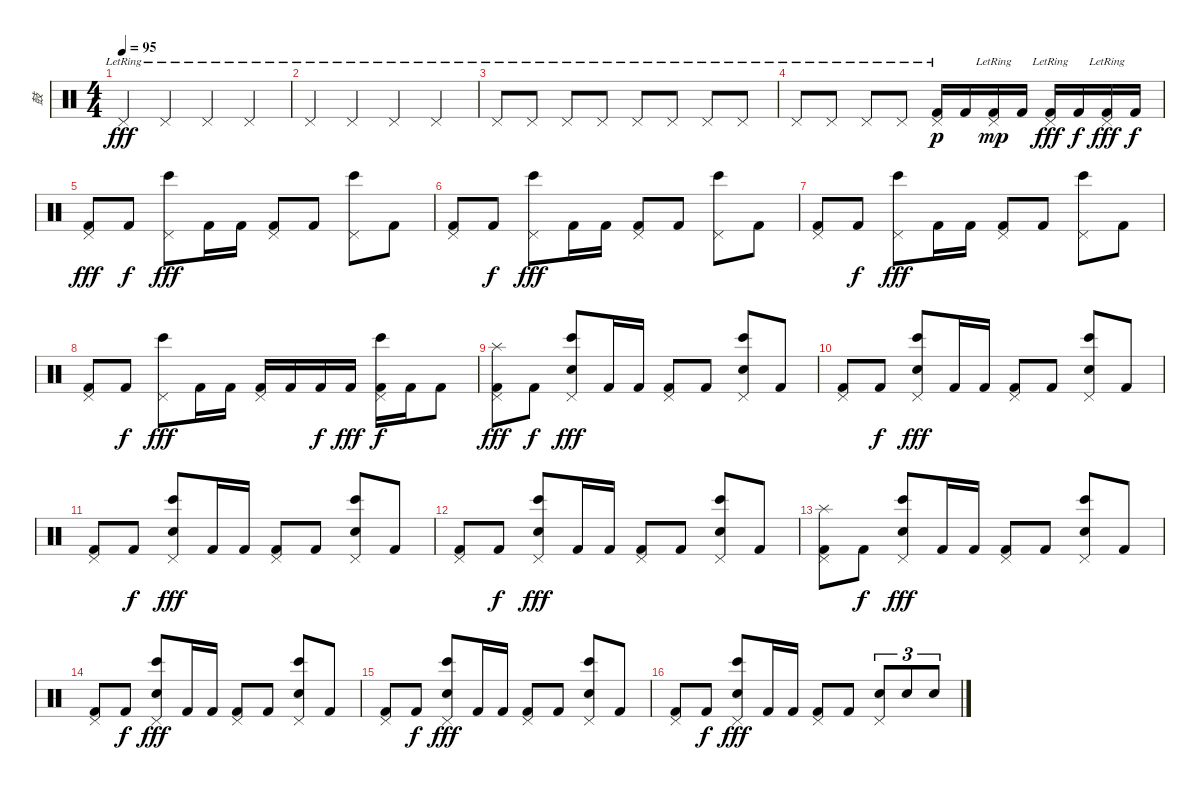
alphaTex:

\track ("鼓" "鼓") {instrument percussion}
\staff {score}
\articulation defaults
\ts (4 4)
\tempo 95
\clef neutral
\ks c "Pedal Hi-Hat (hit)"{lr}.4{dy fff} "Pedal Hi-Hat (hit)"{lr}.4 "Pedal Hi-Hat (hit)"{lr}.4 "Pedal Hi-Hat (hit)"{lr}.4
|
"Pedal Hi-Hat (hit)"{lr}.4 "Pedal Hi-Hat (hit)"{lr}.4 "Pedal Hi-Hat (hit)"{lr}.4 "Pedal Hi-Hat (hit)"{lr}.4 |
"Pedal Hi-Hat (hit)"{lr}.8 "Pedal Hi-Hat (hit)"{lr}.8 "Pedal Hi-Hat (hit)"{lr}.8 "Pedal Hi-Hat (hit)"{lr}.8 "Pedal Hi-Hat (hit)"{lr}.8 "Pedal Hi-Hat (hit)"{lr}.8 "Pedal Hi-Hat (hit)"{lr}.8 "Pedal Hi-Hat (hit)"{lr}.8 |
"Pedal Hi-Hat (hit)"{lr}.8 "Pedal Hi-Hat (hit)"{lr}.8 "Pedal Hi-Hat (hit)"{lr}.8 "Pedal Hi-Hat (hit)"{lr}.8 ("Pedal Hi-Hat (hit)"{lr} "Kick (hit) 2").16{dy p} "Kick (hit) 2".16 ("Pedal Hi-Hat (hit)"{lr} "Kick (hit) 2").16{dy mp} "Kick (hit) 2".16 ("Pedal Hi-Hat (hit)"{lr} "Kick (hit) 2").16{dy fff} "Kick (hit) 2".16{dy f} ("Pedal Hi-Hat (hit)"{lr} "Kick (hit) 2").16{dy fff} "Kick (hit) 2".16{dy f} |
("Pedal Hi-Hat (hit)" "Kick (hit) 2").8{dy fff} "Kick (hit) 2".8{dy f} ("Pedal Hi-Hat (hit)" "Bongo High (hit)").8{dy fff} "Kick (hit) 2".16 "Kick (hit) 2".16 ("Pedal Hi-Hat (hit)" "Kick (hit) 2").8 "Kick (hit) 2".8 ("Pedal Hi-Hat (hit)" "Bongo High (hit)").8 "Kick (hit) 2".8 |
("Pedal Hi-Hat (hit)" "Kick (hit) 2").8 "Kick (hit) 2".8{dy f} ("Pedal Hi-Hat (hit)" "Bongo High (hit)").8{dy fff} "Kick (hit) 2".16 "Kick (hit) 2".16 ("Pedal Hi-Hat (hit)" "Kick (hit) 2").8 "Kick (hit) 2".8 ("Pedal Hi-Hat (hit)" "Bongo High (hit)").8 "Kick (hit) 2".8 |
("Pedal Hi-Hat (hit)" "Kick (hit) 2").8 "Kick (hit) 2".8{dy f} ("Pedal Hi-Hat (hit)" "Bongo High (hit)").8{dy fff} "Kick (hit) 2".16 "Kick (hit) 2".16 ("Pedal Hi-Hat (hit)" "Kick (hit) 2").8 "Kick (hit) 2".8 ("Pedal Hi-Hat (hit)" "Bongo High (hit)").8 "Kick (hit) 2".8 |
("Pedal Hi-Hat (hit)" "Kick (hit) 2").8 "Kick (hit) 2".8{dy f} ("Pedal Hi-Hat (hit)" "Bongo High (hit)").8{dy fff} "Kick (hit) 2".16 "Kick (hit) 2".16 ("Pedal Hi-Hat (hit)" "Kick (hit) 2").16 "Kick (hit) 2".16 "Kick (hit) 2".16{dy f} "Kick (hit) 2".16{dy fff} ("Pedal Hi-Hat (hit)" "Bongo High (hit)" "Kick (hit) 2").16{dy f} "Kick (hit) 2".16 "Kick (hit) 2".8 |
("Pedal Hi-Hat (hit)" "Splash (hit)" "Kick (hit) 2").8{dy fff} "Kick (hit) 2".8{dy f} ("Pedal Hi-Hat (hit)" "Electric Snare (hit)" "Bongo High (hit)").8{dy fff} "Kick (hit) 2".16 "Kick (hit) 2".16 ("Pedal Hi-Hat (hit)" "Kick (hit) 2").8 "Kick (hit) 2".8 ("Pedal Hi-Hat (hit)" "Electric Snare (hit)" "Bongo High (hit)").8 "Kick (hit) 2".8 |
("Pedal Hi-Hat (hit)" "Kick (hit) 2").8 "Kick (hit) 2".8{dy f} ("Pedal Hi-Hat (hit)" "Electric Snare (hit)" "Bongo High (hit)").8{dy fff} "Kick (hit) 2".16 "Kick (hit) 2".16 ("Pedal Hi-Hat (hit)" "Kick (hit) 2").8 "Kick (hit) 2".8 ("Pedal Hi-Hat (hit)" "Electric Snare (hit)" "Bongo High (hit)").8 "Kick (hit) 2".8 |
("Pedal Hi-Hat (hit)" "Kick (hit) 2").8 "Kick (hit) 2".8{dy f} ("Pedal Hi-Hat (hit)" "Electric Snare (hit)" "Bongo High (hit)").8{dy fff} "Kick (hit) 2".16 "Kick (hit) 2".16 ("Pedal Hi-Hat (hit)" "Kick (hit) 2").8 "Kick (hit) 2".8 ("Pedal Hi-Hat (hit)" "Electric Snare (hit)" "Bongo High (hit)").8 "Kick (hit) 2".8 |
("Pedal Hi-Hat (hit)" "Kick (hit) 2").8 "Kick (hit) 2".8{dy f} ("Pedal Hi-Hat (hit)" "Electric Snare (hit)" "Bongo High (hit)").8{dy fff} "Kick (hit) 2".16 "Kick (hit) 2".16 ("Pedal Hi-Hat (hit)" "Kick (hit) 2").8 "Kick (hit) 2".8 ("Pedal Hi-Hat (hit)" "Electric Snare (hit)" "Bongo High (hit)").8 "Kick (hit) 2".8 |
("Pedal Hi-Hat (hit)" "Splash (hit)" "Kick (hit) 2").8 "Kick (hit) 2".8{dy f} ("Pedal Hi-Hat (hit)" "Electric Snare (hit)" "Bongo High (hit)").8{dy fff} "Kick (hit) 2".16 "Kick (hit) 2".16 ("Pedal Hi-Hat (hit)" "Kick (hit) 2").8 "Kick (hit) 2".8 ("Pedal Hi-Hat (hit)" "Electric Snare (hit)" "Bongo High (hit)").8 "Kick (hit) 2".8 |
("Pedal Hi-Hat (hit)" "Kick (hit) 2").8 "Kick (hit) 2".8{dy f} ("Pedal Hi-Hat (hit)" "Electric Snare (hit)" "Bongo High (hit)").8{dy fff} "Kick (hit) 2".16 "Kick (hit) 2".16 ("Pedal Hi-Hat (hit)" "Kick (hit) 2").8 "Kick (hit) 2".8 ("Pedal Hi-Hat (hit)" "Electric Snare (hit)" "Bongo High (hit)").8 "Kick (hit) 2".8 |
("Pedal Hi-Hat (hit)" "Kick (hit) 2").8 "Kick (hit) 2".8{dy f} ("Pedal Hi-Hat (hit)" "Electric Snare (hit)" "Bongo High (hit)").8{dy fff} "Kick (hit) 2".16 "Kick (hit) 2".16 ("Pedal Hi-Hat (hit)" "Kick (hit) 2").8 "Kick (hit) 2".8 ("Pedal Hi-Hat (hit)" "Electric Snare (hit)" "Bongo High (hit)").8 "Kick (hit) 2".8 |
("Pedal Hi-Hat (hit)" "Kick (hit) 2").8 "Kick (hit) 2".8{dy f} ("Pedal Hi-Hat (hit)" "Electric Snare (hit)" "Bongo High (hit)").8{dy fff} "Kick (hit) 2".16 "Kick (hit) 2".16 ("Pedal Hi-Hat (hit)" "Kick (hit) 2").8 "Kick (hit) 2".8 ("Pedal Hi-Hat (hit)" "Electric Snare (hit)").8{tu (3 2)} "Electric Snare (hit)".8{tu (3 2)} "Electric Snare (hit)".8{tu (3 2)}
